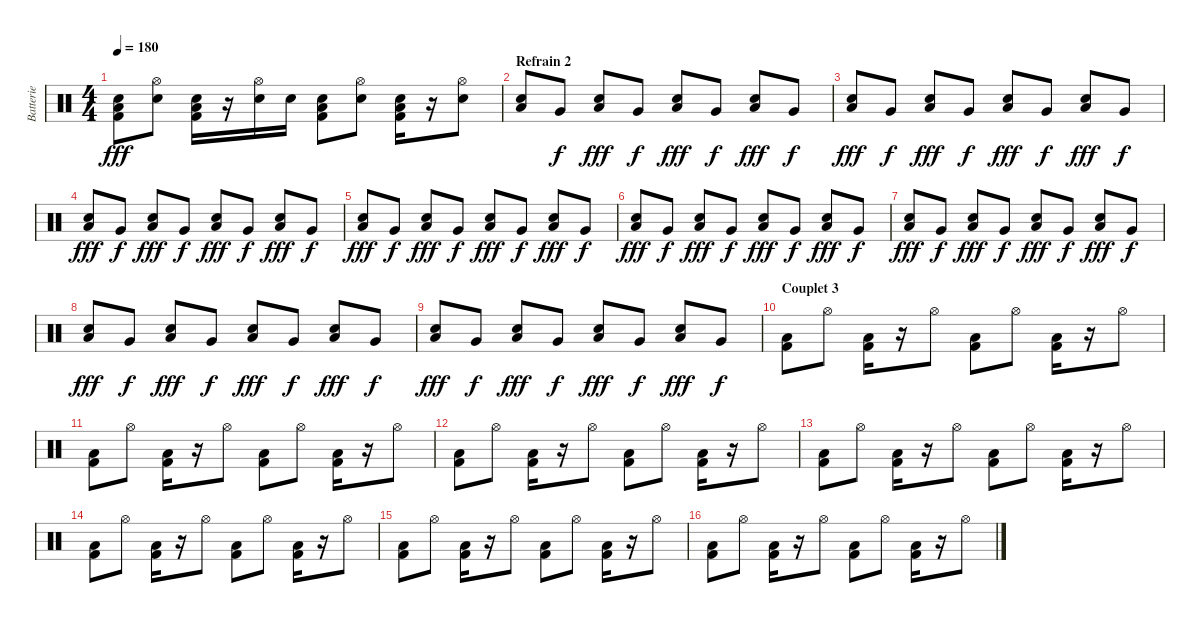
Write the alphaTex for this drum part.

\track ("Batterie" "Batterie") {instrument percussion}
\staff {score}
\articulation defaults
\ts (4 4)
\tempo 180
\clef neutral
\ks c
("Kick (hit) 2" "Low Floor Tom (hit)" "Electric Snare (hit)").8{dy fff} ("Hi-Hat (open)" "Electric Snare (hit)").8 ("Kick (hit) 2" "Low Floor Tom (hit)" "Electric Snare (hit)").16 r.16 ("Hi-Hat (open)" "Electric Snare (hit)").16 "Electric Snare (hit)".16 ("Kick (hit) 2" "Low Floor Tom (hit)" "Electric Snare (hit)").8 ("Hi-Hat (open)" "Electric Snare (hit)").8 ("Kick (hit) 2" "Low Floor Tom (hit)" "Electric Snare (hit)").16 r.16 ("Hi-Hat (open)" "Electric Snare (hit)").8 |
\section ("" "Refrain 2")
("Electric Snare (hit)" "Low Floor Tom (hit)").8 "Very Low Tom (hit)".8{dy f} ("Electric Snare (hit)" "Low Floor Tom (hit)").8{dy fff} "Very Low Tom (hit)".8{dy f} ("Electric Snare (hit)" "Low Floor Tom (hit)").8{dy fff} "Very Low Tom (hit)".8{dy f} ("Electric Snare (hit)" "Low Floor Tom (hit)").8{dy fff} "Very Low Tom (hit)".8{dy f} |
("Electric Snare (hit)" "Low Floor Tom (hit)").8{dy fff} "Very Low Tom (hit)".8{dy f} ("Electric Snare (hit)" "Low Floor Tom (hit)").8{dy fff} "Very Low Tom (hit)".8{dy f} ("Electric Snare (hit)" "Low Floor Tom (hit)").8{dy fff} "Very Low Tom (hit)".8{dy f} ("Electric Snare (hit)" "Low Floor Tom (hit)").8{dy fff} "Very Low Tom (hit)".8{dy f} |
("Electric Snare (hit)" "Low Floor Tom (hit)").8{dy fff} "Very Low Tom (hit)".8{dy f} ("Electric Snare (hit)" "Low Floor Tom (hit)").8{dy fff} "Very Low Tom (hit)".8{dy f} ("Electric Snare (hit)" "Low Floor Tom (hit)").8{dy fff} "Very Low Tom (hit)".8{dy f} ("Electric Snare (hit)" "Low Floor Tom (hit)").8{dy fff} "Very Low Tom (hit)".8{dy f} |
("Electric Snare (hit)" "Low Floor Tom (hit)").8{dy fff} "Very Low Tom (hit)".8{dy f} ("Electric Snare (hit)" "Low Floor Tom (hit)").8{dy fff} "Very Low Tom (hit)".8{dy f} ("Electric Snare (hit)" "Low Floor Tom (hit)").8{dy fff} "Very Low Tom (hit)".8{dy f} ("Electric Snare (hit)" "Low Floor Tom (hit)").8{dy fff} "Very Low Tom (hit)".8{dy f} |
("Electric Snare (hit)" "Low Floor Tom (hit)").8{dy fff} "Very Low Tom (hit)".8{dy f} ("Electric Snare (hit)" "Low Floor Tom (hit)").8{dy fff} "Very Low Tom (hit)".8{dy f} ("Electric Snare (hit)" "Low Floor Tom (hit)").8{dy fff} "Very Low Tom (hit)".8{dy f} ("Electric Snare (hit)" "Low Floor Tom (hit)").8{dy fff} "Very Low Tom (hit)".8{dy f} |
("Electric Snare (hit)" "Low Floor Tom (hit)").8{dy fff} "Very Low Tom (hit)".8{dy f} ("Electric Snare (hit)" "Low Floor Tom (hit)").8{dy fff} "Very Low Tom (hit)".8{dy f} ("Electric Snare (hit)" "Low Floor Tom (hit)").8{dy fff} "Very Low Tom (hit)".8{dy f} ("Electric Snare (hit)" "Low Floor Tom (hit)").8{dy fff} "Very Low Tom (hit)".8{dy f} |
("Electric Snare (hit)" "Low Floor Tom (hit)").8{dy fff} "Very Low Tom (hit)".8{dy f} ("Electric Snare (hit)" "Low Floor Tom (hit)").8{dy fff} "Very Low Tom (hit)".8{dy f} ("Electric Snare (hit)" "Low Floor Tom (hit)").8{dy fff} "Very Low Tom (hit)".8{dy f} ("Electric Snare (hit)" "Low Floor Tom (hit)").8{dy fff} "Very Low Tom (hit)".8{dy f} |
("Electric Snare (hit)" "Low Floor Tom (hit)").8{dy fff} "Very Low Tom (hit)".8{dy f} ("Electric Snare (hit)" "Low Floor Tom (hit)").8{dy fff} "Very Low Tom (hit)".8{dy f} ("Electric Snare (hit)" "Low Floor Tom (hit)").8{dy fff} "Very Low Tom (hit)".8{dy f} ("Electric Snare (hit)" "Low Floor Tom (hit)").8{dy fff} "Very Low Tom (hit)".8{dy f} |
\section ("" "Couplet 3")
("Kick (hit) 2" "Low Floor Tom (hit)").8 "Hi-Hat (open)".8 ("Kick (hit) 2" "Low Floor Tom (hit)").16 r.16 "Hi-Hat (open)".8 ("Kick (hit) 2" "Low Floor Tom (hit)").8 "Hi-Hat (open)".8 ("Kick (hit) 2" "Low Floor Tom (hit)").16 r.16 "Hi-Hat (open)".8 |
("Kick (hit) 2" "Low Floor Tom (hit)").8 "Hi-Hat (open)".8 ("Kick (hit) 2" "Low Floor Tom (hit)").16 r.16 "Hi-Hat (open)".8 ("Kick (hit) 2" "Low Floor Tom (hit)").8 "Hi-Hat (open)".8 ("Kick (hit) 2" "Low Floor Tom (hit)").16 r.16 "Hi-Hat (open)".8 |
("Kick (hit) 2" "Low Floor Tom (hit)").8 "Hi-Hat (open)".8 ("Kick (hit) 2" "Low Floor Tom (hit)").16 r.16 "Hi-Hat (open)".8 ("Kick (hit) 2" "Low Floor Tom (hit)").8 "Hi-Hat (open)".8 ("Kick (hit) 2" "Low Floor Tom (hit)").16 r.16 "Hi-Hat (open)".8 |
("Kick (hit) 2" "Low Floor Tom (hit)").8 "Hi-Hat (open)".8 ("Kick (hit) 2" "Low Floor Tom (hit)").16 r.16 "Hi-Hat (open)".8 ("Kick (hit) 2" "Low Floor Tom (hit)").8 "Hi-Hat (open)".8 ("Kick (hit) 2" "Low Floor Tom (hit)").16 r.16 "Hi-Hat (open)".8 |
("Kick (hit) 2" "Low Floor Tom (hit)").8 "Hi-Hat (open)".8 ("Kick (hit) 2" "Low Floor Tom (hit)").16 r.16 "Hi-Hat (open)".8 ("Kick (hit) 2" "Low Floor Tom (hit)").8 "Hi-Hat (open)".8 ("Kick (hit) 2" "Low Floor Tom (hit)").16 r.16 "Hi-Hat (open)".8 |
("Kick (hit) 2" "Low Floor Tom (hit)").8 "Hi-Hat (open)".8 ("Kick (hit) 2" "Low Floor Tom (hit)").16 r.16 "Hi-Hat (open)".8 ("Kick (hit) 2" "Low Floor Tom (hit)").8 "Hi-Hat (open)".8 ("Kick (hit) 2" "Low Floor Tom (hit)").16 r.16 "Hi-Hat (open)".8 |
("Kick (hit) 2" "Low Floor Tom (hit)").8 "Hi-Hat (open)".8 ("Kick (hit) 2" "Low Floor Tom (hit)").16 r.16 "Hi-Hat (open)".8 ("Kick (hit) 2" "Low Floor Tom (hit)").8 "Hi-Hat (open)".8 ("Kick (hit) 2" "Low Floor Tom (hit)").16 r.16 "Hi-Hat (open)".8
